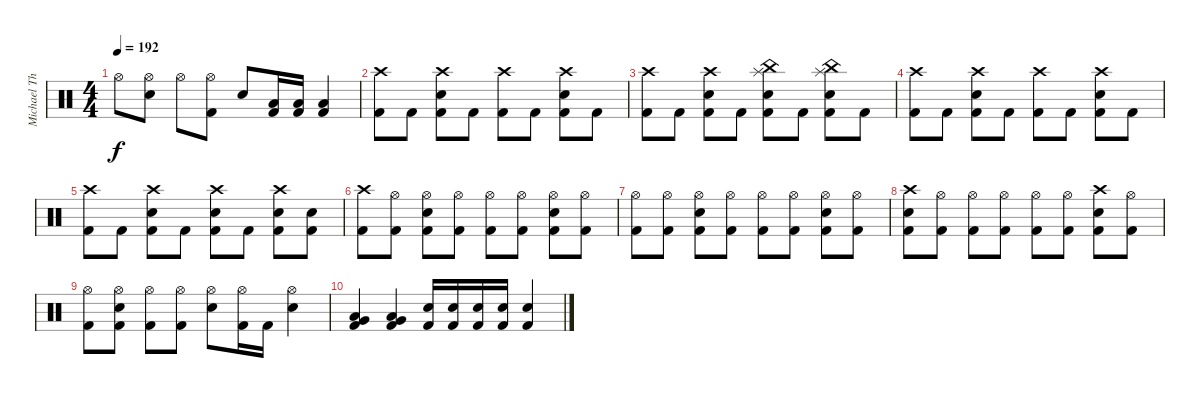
\track ("Michael Thomas (Drums)" "Michael Th") {instrument percussion}
\staff {score}
\articulation defaults
\ts (4 4)
\tempo 192
\clef neutral
\ks c "Hi-Hat (open)".8{dy f}
("Hi-Hat (open)" "Snare (hit) 2").8 "Hi-Hat (open)".8 ("Hi-Hat (open)" "Kick (hit) 2").8 "Snare (hit) 2".8 ("Low Tom (hit)" "Kick (hit) 2").16 ("Low Tom (hit)" "Kick (hit) 2").16 ("Low Floor Tom (hit)" "Kick (hit) 2").4 |
("Crash high (hit)" "Kick (hit) 2").8 "Kick (hit) 2".8 ("Snare (hit) 2" "Crash high (hit)" "Kick (hit) 2").8 "Kick (hit) 2".8 ("Crash high (hit)" "Kick (hit) 2").8 "Kick (hit) 2".8 ("Snare (hit) 2" "Crash high (hit)" "Kick (hit) 2").8 "Kick (hit) 2".8 |
("Crash high (hit)" "Kick (hit) 2").8 "Kick (hit) 2".8 ("Snare (hit) 2" "Crash high (hit)" "Kick (hit) 2").8 "Kick (hit) 2".8 ("Splash (hit)" "China (hit)" "Snare (hit) 2" "Kick (hit) 2").8 "Kick (hit) 2".8 ("Splash (hit)" "China (hit)" "Snare (hit) 2" "Kick (hit) 2").8 "Kick (hit) 2".8 |
("Crash high (hit)" "Kick (hit) 2").8 "Kick (hit) 2".8 ("Snare (hit) 2" "Crash high (hit)" "Kick (hit) 2").8 "Kick (hit) 2".8 ("Crash high (hit)" "Kick (hit) 2").8 "Kick (hit) 2".8 ("Snare (hit) 2" "Crash high (hit)" "Kick (hit) 2").8 "Kick (hit) 2".8 |
("Crash high (hit)" "Kick (hit) 2").8 "Kick (hit) 2".8 ("Snare (hit) 2" "Crash high (hit)" "Kick (hit) 2").8 "Kick (hit) 2".8 ("Crash high (hit)" "Snare (hit) 2" "Kick (hit) 2").8 "Kick (hit) 2".8 ("Crash high (hit)" "Snare (hit) 2" "Kick (hit) 2").8 ("Snare (hit) 2" "Kick (hit) 2").8 |
("Crash high (hit)" "Kick (hit) 2").8 ("Hi-Hat (open)" "Kick (hit) 2").8 ("Hi-Hat (open)" "Snare (hit) 2" "Kick (hit) 2").8 ("Hi-Hat (open)" "Kick (hit) 2").8 ("Hi-Hat (open)" "Kick (hit) 2").8 ("Hi-Hat (open)" "Kick (hit) 2").8 ("Hi-Hat (open)" "Snare (hit) 2" "Kick (hit) 2").8 ("Hi-Hat (open)" "Kick (hit) 2").8 |
("Hi-Hat (open)" "Kick (hit) 2").8 ("Hi-Hat (open)" "Kick (hit) 2").8 ("Hi-Hat (open)" "Snare (hit) 2" "Kick (hit) 2").8 ("Hi-Hat (open)" "Kick (hit) 2").8 ("Hi-Hat (open)" "Kick (hit) 2").8 ("Hi-Hat (open)" "Kick (hit) 2").8 ("Hi-Hat (open)" "Snare (hit) 2" "Kick (hit) 2").8 ("Hi-Hat (open)" "Kick (hit) 2").8 |
("Crash high (hit)" "Snare (hit) 2" "Kick (hit) 2").8 ("Hi-Hat (open)" "Kick (hit) 2").8 ("Hi-Hat (open)" "Kick (hit) 2").8 ("Hi-Hat (open)" "Kick (hit) 2").8 ("Hi-Hat (open)" "Kick (hit) 2").8 ("Hi-Hat (open)" "Kick (hit) 2").8 ("Crash high (hit)" "Snare (hit) 2" "Kick (hit) 2").8 ("Hi-Hat (open)" "Kick (hit) 2").8 |
("Hi-Hat (open)" "Kick (hit) 2").8 ("Hi-Hat (open)" "Snare (hit) 2" "Kick (hit) 2").8 ("Hi-Hat (open)" "Kick (hit) 2").8 ("Hi-Hat (open)" "Kick (hit) 2").8 ("Hi-Hat (open)" "Snare (hit) 2").8 ("Hi-Hat (open)" "Kick (hit) 2").16 "Kick (hit) 2".16 ("Hi-Hat (open)" "Snare (hit) 2").4 |
("Kick (hit) 2" "Very Low Tom (hit)" "Low Floor Tom (hit)").4 ("Very Low Tom (hit)" "Low Floor Tom (hit)" "Kick (hit) 2").4 ("Kick (hit) 2" "Snare (hit) 2").16 ("Kick (hit) 2" "Snare (hit) 2").16 ("Kick (hit) 2" "Snare (hit) 2").16 ("Kick (hit) 2" "Snare (hit) 2").16 ("Kick (hit) 2" "Snare (hit) 2").4
